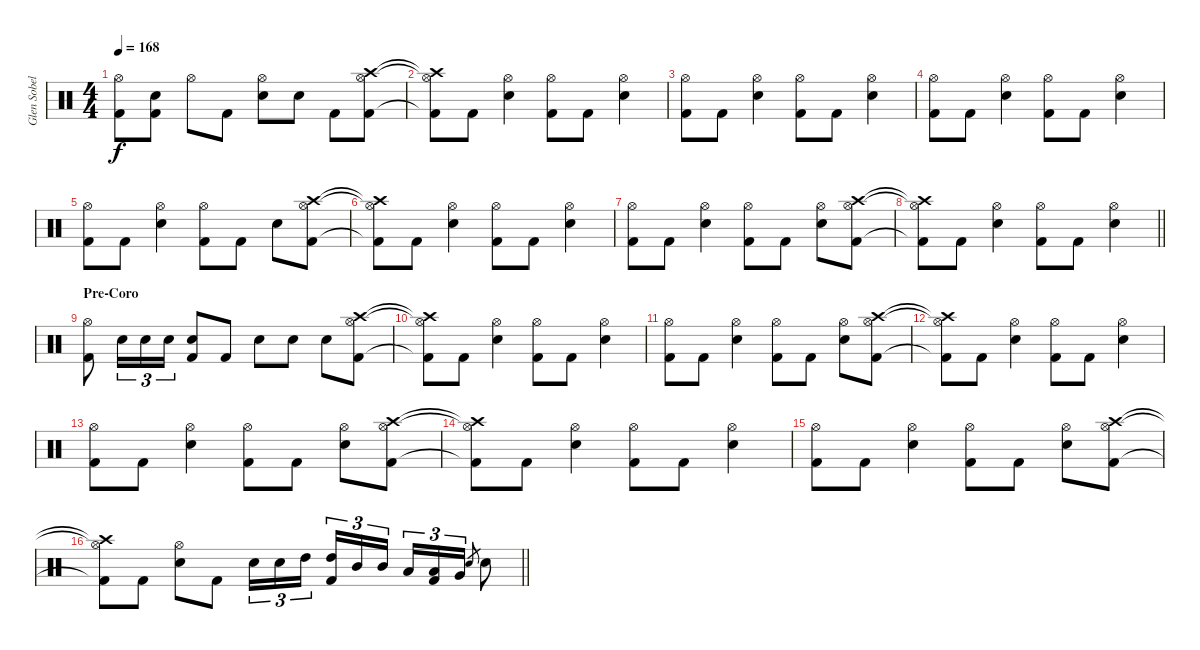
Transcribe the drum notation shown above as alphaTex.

\track ("Glen Sobel" "Glen Sobel") {instrument percussion}
\staff {score}
\articulation defaults
\ts (4 4)
\tempo 168
\clef neutral
\ks c
("Hi-Hat (open)" "Kick (hit) 2").8{dy f} ("Snare (hit) 2" "Kick (hit) 2").8 "Hi-Hat (open)".8 "Kick (hit) 2".8 ("Hi-Hat (open)" "Snare (hit) 2").8 "Snare (hit) 2".8 "Kick (hit) 2".8 ("Hi-Hat (open)" "Crash high (hit)" "Kick (hit) 2").8 |
("Hi-Hat (open)"{t} "Crash high (hit)"{t} "Kick (hit) 2"{t}).8 "Kick (hit) 2".8 ("Hi-Hat (open)" "Snare (hit) 2").4 ("Hi-Hat (open)" "Kick (hit) 2").8 "Kick (hit) 2".8 ("Hi-Hat (open)" "Snare (hit) 2").4 |
("Hi-Hat (open)" "Kick (hit) 2").8 "Kick (hit) 2".8 ("Hi-Hat (open)" "Snare (hit) 2").4 ("Hi-Hat (open)" "Kick (hit) 2").8 "Kick (hit) 2".8 ("Hi-Hat (open)" "Snare (hit) 2").4 |
("Hi-Hat (open)" "Kick (hit) 2").8 "Kick (hit) 2".8 ("Hi-Hat (open)" "Snare (hit) 2").4 ("Hi-Hat (open)" "Kick (hit) 2").8 "Kick (hit) 2".8 ("Hi-Hat (open)" "Snare (hit) 2").4 |
("Hi-Hat (open)" "Kick (hit) 2").8 "Kick (hit) 2".8 ("Hi-Hat (open)" "Snare (hit) 2").4 ("Hi-Hat (open)" "Kick (hit) 2").8 "Kick (hit) 2".8 "Snare (hit) 2".8 ("Hi-Hat (open)" "Crash high (hit)" "Kick (hit) 2").8 |
("Hi-Hat (open)"{t} "Crash high (hit)"{t} "Kick (hit) 2"{t}).8 "Kick (hit) 2".8 ("Hi-Hat (open)" "Snare (hit) 2").4 ("Hi-Hat (open)" "Kick (hit) 2").8 "Kick (hit) 2".8 ("Hi-Hat (open)" "Snare (hit) 2").4 |
("Hi-Hat (open)" "Kick (hit) 2").8 "Kick (hit) 2".8 ("Hi-Hat (open)" "Snare (hit) 2").4 ("Hi-Hat (open)" "Kick (hit) 2").8 "Kick (hit) 2".8 ("Hi-Hat (open)" "Snare (hit) 2").8 ("Hi-Hat (open)" "Crash high (hit)" "Kick (hit) 2").8 |
\barLineRight lightlight
("Hi-Hat (open)"{t} "Crash high (hit)"{t} "Kick (hit) 2"{t}).8 "Kick (hit) 2".8 ("Hi-Hat (open)" "Snare (hit) 2").4 ("Hi-Hat (open)" "Kick (hit) 2").8 "Kick (hit) 2".8 ("Hi-Hat (open)" "Snare (hit) 2").4 |
\section ("" "Pre-Coro")
("Hi-Hat (open)" "Kick (hit) 2").8 "Snare (hit) 2".16{tu (3 2)} "Snare (hit) 2".16{tu (3 2)} "Snare (hit) 2".16{tu (3 2)} ("Snare (hit) 2" "Kick (hit) 2").8 "Kick (hit) 2".8 "Snare (hit) 2".8 "Snare (hit) 2".8 "Snare (hit) 2".8 ("Hi-Hat (open)" "Crash high (hit)" "Kick (hit) 2").8 |
("Hi-Hat (open)"{t} "Crash high (hit)"{t} "Kick (hit) 2"{t}).8 "Kick (hit) 2".8 ("Hi-Hat (open)" "Snare (hit) 2").4 ("Hi-Hat (open)" "Kick (hit) 2").8 "Kick (hit) 2".8 ("Hi-Hat (open)" "Snare (hit) 2").4 |
("Hi-Hat (open)" "Kick (hit) 2").8 "Kick (hit) 2".8 ("Hi-Hat (open)" "Snare (hit) 2").4 ("Hi-Hat (open)" "Kick (hit) 2").8 "Kick (hit) 2".8 ("Hi-Hat (open)" "Snare (hit) 2").8 ("Hi-Hat (open)" "Crash high (hit)" "Kick (hit) 2").8 |
("Hi-Hat (open)"{t} "Crash high (hit)"{t} "Kick (hit) 2"{t}).8 "Kick (hit) 2".8 ("Hi-Hat (open)" "Snare (hit) 2").4 ("Hi-Hat (open)" "Kick (hit) 2").8 "Kick (hit) 2".8 ("Hi-Hat (open)" "Snare (hit) 2").4 |
("Hi-Hat (open)" "Kick (hit) 2").8 "Kick (hit) 2".8 ("Hi-Hat (open)" "Snare (hit) 2").4 ("Hi-Hat (open)" "Kick (hit) 2").8 "Kick (hit) 2".8 ("Hi-Hat (open)" "Snare (hit) 2").8 ("Hi-Hat (open)" "Crash high (hit)" "Kick (hit) 2").8 |
("Hi-Hat (open)"{t} "Crash high (hit)"{t} "Kick (hit) 2"{t}).8 "Kick (hit) 2".8 ("Hi-Hat (open)" "Snare (hit) 2").4 ("Hi-Hat (open)" "Kick (hit) 2").8 "Kick (hit) 2".8 ("Hi-Hat (open)" "Snare (hit) 2").4 |
("Hi-Hat (open)" "Kick (hit) 2").8 "Kick (hit) 2".8 ("Hi-Hat (open)" "Snare (hit) 2").4 ("Hi-Hat (open)" "Kick (hit) 2").8 "Kick (hit) 2".8 ("Hi-Hat (open)" "Snare (hit) 2").8 ("Hi-Hat (open)" "Crash high (hit)" "Kick (hit) 2").8 |
\barLineRight lightlight
("Hi-Hat (open)"{t} "Crash high (hit)"{t} "Kick (hit) 2"{t}).8 "Kick (hit) 2".8 ("Hi-Hat (open)" "Snare (hit) 2").8 "Kick (hit) 2".8 "Snare (hit) 2".16{tu (3 2)} "Snare (hit) 2".16{tu (3 2)} "High Tom (hit)".16{tu (3 2) beam splitsecondary} ("High Tom (hit)" "Kick (hit) 2").16{tu (3 2)} "Mid Tom (hit)".16{tu (3 2)} "Mid Tom (hit)".16{tu (3 2)} "Low Tom (hit)".16{tu (3 2)} ("Low Tom (hit)" "Kick (hit) 2").16{tu (3 2)} "Very Low Tom (hit)".16{tu (3 2)} "Snare (hit) 2".8{gr} "Snare (hit) 2".8
